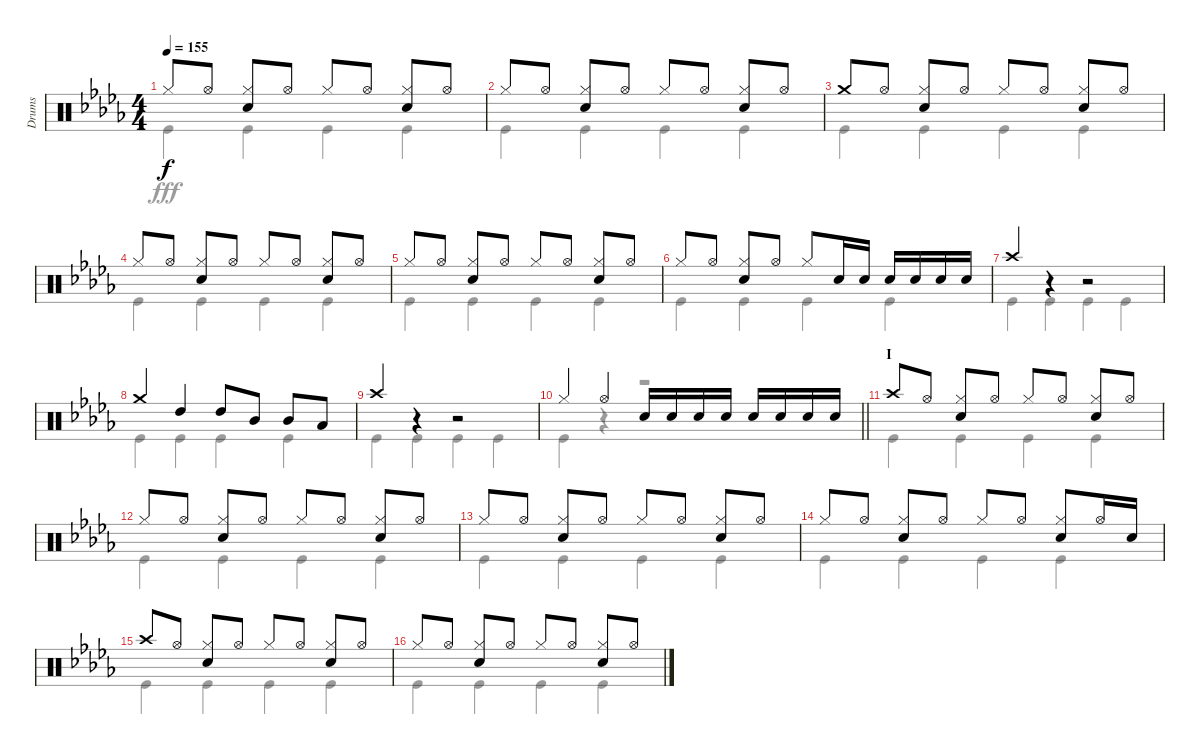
\track ("Drums" "Drums") {instrument percussion}
\staff {score}
\articulation defaults
\voice
\ts (4 4)
\tempo 155
\clef neutral
\ks db "Hi-Hat (closed)".8{dy f} "Hi-Hat (open)".8
("Hi-Hat (closed)" "Snare (hit) 2").8 "Hi-Hat (open)".8 "Hi-Hat (closed)".8 "Hi-Hat (open)".8 ("Hi-Hat (closed)" "Snare (hit) 2").8 "Hi-Hat (open)".8 |
"Hi-Hat (closed)".8 "Hi-Hat (open)".8 ("Hi-Hat (closed)" "Snare (hit) 2").8 "Hi-Hat (open)".8 "Hi-Hat (closed)".8 "Hi-Hat (open)".8 ("Hi-Hat (closed)" "Snare (hit) 2").8 "Hi-Hat (open)".8 |
"Crash medium (hit)".8 "Hi-Hat (open)".8 ("Hi-Hat (closed)" "Snare (hit) 2").8 "Hi-Hat (open)".8 "Hi-Hat (closed)".8 "Hi-Hat (open)".8 ("Hi-Hat (closed)" "Snare (hit) 2").8 "Hi-Hat (open)".8 |
"Hi-Hat (closed)".8 "Hi-Hat (open)".8 ("Hi-Hat (closed)" "Snare (hit) 2").8 "Hi-Hat (open)".8 "Hi-Hat (closed)".8 "Hi-Hat (open)".8 ("Hi-Hat (closed)" "Snare (hit) 2").8 "Hi-Hat (open)".8 |
"Hi-Hat (closed)".8 "Hi-Hat (open)".8 ("Hi-Hat (closed)" "Snare (hit) 2").8 "Hi-Hat (open)".8 "Hi-Hat (closed)".8 "Hi-Hat (open)".8 ("Hi-Hat (closed)" "Snare (hit) 2").8 "Hi-Hat (open)".8 |
"Hi-Hat (closed)".8 "Hi-Hat (open)".8 ("Hi-Hat (closed)" "Snare (hit) 2").8 "Hi-Hat (open)".8 "Hi-Hat (closed)".8 "Snare (hit) 2".16 "Snare (hit) 2".16 "Snare (hit) 2".16 "Snare (hit) 2".16 "Snare (hit) 2".16 "Snare (hit) 2".16 |
"Crash high (hit)".4 r.4 r.2 |
"Crash medium (hit)".4 "High Tom (hit)".4 "High Tom (hit)".8 "Mid Tom (hit)".8 "Mid Tom (hit)".8 "Low Tom (hit)".8 |
"Crash high (hit)".4 r.4 r.2 |
\barLineRight lightlight "Hi-Hat (closed)".4 "Hi-Hat (open)".4 "Snare (hit) 2".16 "Snare (hit) 2".16 "Snare (hit) 2".16 "Snare (hit) 2".16 "Snare (hit) 2".16 "Snare (hit) 2".16 "Snare (hit) 2".16 "Snare (hit) 2".16
|
\section ("" "I")
"Crash high (hit)".8 "Hi-Hat (open)".8 ("Hi-Hat (closed)" "Snare (hit) 2").8 "Hi-Hat (open)".8 "Hi-Hat (closed)".8 "Hi-Hat (open)".8 ("Hi-Hat (closed)" "Snare (hit) 2").8 "Hi-Hat (open)".8 |
"Hi-Hat (closed)".8 "Hi-Hat (open)".8 ("Hi-Hat (closed)" "Snare (hit) 2").8 "Hi-Hat (open)".8 "Hi-Hat (closed)".8 "Hi-Hat (open)".8 ("Hi-Hat (closed)" "Snare (hit) 2").8 "Hi-Hat (open)".8 |
"Hi-Hat (closed)".8 "Hi-Hat (open)".8 ("Hi-Hat (closed)" "Snare (hit) 2").8 "Hi-Hat (open)".8 "Hi-Hat (closed)".8 "Hi-Hat (open)".8 ("Hi-Hat (closed)" "Snare (hit) 2").8 "Hi-Hat (open)".8 |
"Hi-Hat (closed)".8 "Hi-Hat (open)".8 ("Hi-Hat (closed)" "Snare (hit) 2").8 "Hi-Hat (open)".8 "Hi-Hat (closed)".8 "Hi-Hat (open)".8 ("Hi-Hat (closed)" "Snare (hit) 2").8 "Hi-Hat (open)".16 "Snare (hit) 2".16 |
"Crash high (hit)".8 "Hi-Hat (open)".8 ("Hi-Hat (closed)" "Snare (hit) 2").8 "Hi-Hat (open)".8 "Hi-Hat (closed)".8 "Hi-Hat (open)".8 ("Hi-Hat (closed)" "Snare (hit) 2").8 "Hi-Hat (open)".8 |
"Hi-Hat (closed)".8 "Hi-Hat (open)".8 ("Hi-Hat (closed)" "Snare (hit) 2").8 "Hi-Hat (open)".8 "Hi-Hat (closed)".8 "Hi-Hat (open)".8 ("Hi-Hat (closed)" "Snare (hit) 2").8 "Hi-Hat (open)".8
\voice
\clef neutral
\ottava regular
\simile none
\ks db "Kick (hit)".4{dy fff} "Kick (hit)".4 "Kick (hit)".4 "Kick (hit)".4
|
"Kick (hit)".4 "Kick (hit)".4 "Kick (hit)".4 "Kick (hit)".4 |
"Kick (hit)".4 "Kick (hit)".4 "Kick (hit)".4 "Kick (hit)".4 |
"Kick (hit)".4 "Kick (hit)".4 "Kick (hit)".4 "Kick (hit)".4 |
"Kick (hit)".4 "Kick (hit)".4 "Kick (hit)".4 "Kick (hit)".4 |
"Kick (hit)".4 "Kick (hit)".4 "Kick (hit)".4 "Kick (hit)".4 |
"Kick (hit)".4 "Kick (hit)".4 "Kick (hit)".4 "Kick (hit)".4 |
"Kick (hit)".4 "Kick (hit)".4 "Kick (hit)".4 "Kick (hit)".4 |
"Kick (hit)".4 "Kick (hit)".4 "Kick (hit)".4 "Kick (hit)".4 |
\barLineRight lightlight "Kick (hit)".4
r.4 r.2 |
"Kick (hit)".4 "Kick (hit)".4 "Kick (hit)".4 "Kick (hit)".4 |
"Kick (hit)".4 "Kick (hit)".4 "Kick (hit)".4 "Kick (hit)".4 |
"Kick (hit)".4 "Kick (hit)".4 "Kick (hit)".4 "Kick (hit)".4 |
"Kick (hit)".4 "Kick (hit)".4 "Kick (hit)".4 "Kick (hit)".4 |
"Kick (hit)".4 "Kick (hit)".4 "Kick (hit)".4 "Kick (hit)".4 |
"Kick (hit)".4 "Kick (hit)".4 "Kick (hit)".4 "Kick (hit)".4
